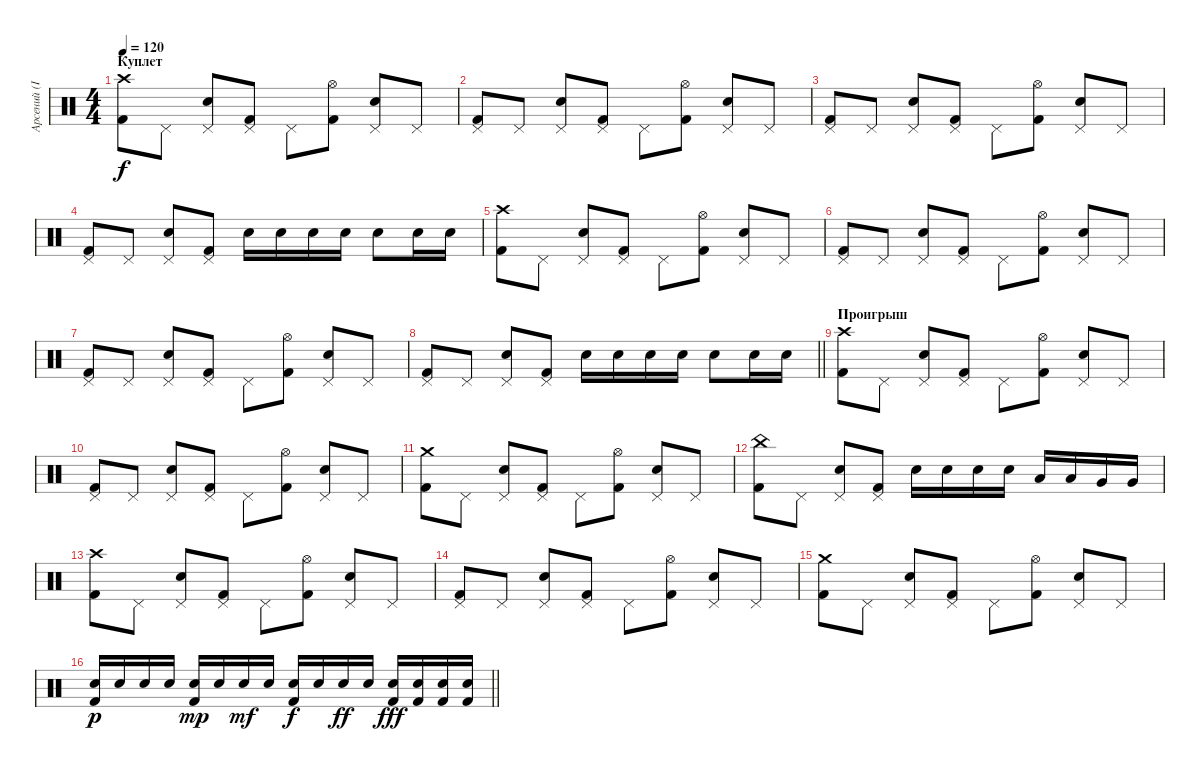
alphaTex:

\track ("Арсений (Idler) Ударные" "Арсений (I") {instrument percussion}
\staff {score}
\articulation defaults
\ts (4 4)
\section ("" "Куплет")
\tempo 120
\clef neutral
\ks c
("Crash high (hit)" "Kick (hit) 2").8{dy f} "Pedal Hi-Hat (hit)".8 ("Pedal Hi-Hat (hit)" "Snare (hit) 2").8 ("Pedal Hi-Hat (hit)" "Kick (hit) 2").8 "Pedal Hi-Hat (hit)".8 ("Hi-Hat (open)" "Kick (hit) 2").8 ("Pedal Hi-Hat (hit)" "Snare (hit) 2").8 "Pedal Hi-Hat (hit)".8 |
("Pedal Hi-Hat (hit)" "Kick (hit) 2").8 "Pedal Hi-Hat (hit)".8 ("Pedal Hi-Hat (hit)" "Snare (hit) 2").8 ("Pedal Hi-Hat (hit)" "Kick (hit) 2").8 "Pedal Hi-Hat (hit)".8 ("Hi-Hat (open)" "Kick (hit) 2").8 ("Pedal Hi-Hat (hit)" "Snare (hit) 2").8 "Pedal Hi-Hat (hit)".8 |
("Pedal Hi-Hat (hit)" "Kick (hit) 2").8 "Pedal Hi-Hat (hit)".8 ("Pedal Hi-Hat (hit)" "Snare (hit) 2").8 ("Pedal Hi-Hat (hit)" "Kick (hit) 2").8 "Pedal Hi-Hat (hit)".8 ("Hi-Hat (open)" "Kick (hit) 2").8 ("Pedal Hi-Hat (hit)" "Snare (hit) 2").8 "Pedal Hi-Hat (hit)".8 |
("Pedal Hi-Hat (hit)" "Kick (hit) 2").8 "Pedal Hi-Hat (hit)".8 ("Pedal Hi-Hat (hit)" "Snare (hit) 2").8 ("Pedal Hi-Hat (hit)" "Kick (hit) 2").8 "Snare (hit) 2".16 "Snare (hit) 2".16 "Snare (hit) 2".16 "Snare (hit) 2".16 "Snare (hit) 2".8 "Snare (hit) 2".16 "Snare (hit) 2".16 |
("Crash high (hit)" "Kick (hit) 2").8 "Pedal Hi-Hat (hit)".8 ("Pedal Hi-Hat (hit)" "Snare (hit) 2").8 ("Pedal Hi-Hat (hit)" "Kick (hit) 2").8 "Pedal Hi-Hat (hit)".8 ("Hi-Hat (open)" "Kick (hit) 2").8 ("Pedal Hi-Hat (hit)" "Snare (hit) 2").8 "Pedal Hi-Hat (hit)".8 |
("Pedal Hi-Hat (hit)" "Kick (hit) 2").8 "Pedal Hi-Hat (hit)".8 ("Pedal Hi-Hat (hit)" "Snare (hit) 2").8 ("Pedal Hi-Hat (hit)" "Kick (hit) 2").8 "Pedal Hi-Hat (hit)".8 ("Hi-Hat (open)" "Kick (hit) 2").8 ("Pedal Hi-Hat (hit)" "Snare (hit) 2").8 "Pedal Hi-Hat (hit)".8 |
("Pedal Hi-Hat (hit)" "Kick (hit) 2").8 "Pedal Hi-Hat (hit)".8 ("Pedal Hi-Hat (hit)" "Snare (hit) 2").8 ("Pedal Hi-Hat (hit)" "Kick (hit) 2").8 "Pedal Hi-Hat (hit)".8 ("Hi-Hat (open)" "Kick (hit) 2").8 ("Pedal Hi-Hat (hit)" "Snare (hit) 2").8 "Pedal Hi-Hat (hit)".8 |
\barLineRight lightlight
("Pedal Hi-Hat (hit)" "Kick (hit) 2").8 "Pedal Hi-Hat (hit)".8 ("Pedal Hi-Hat (hit)" "Snare (hit) 2").8 ("Pedal Hi-Hat (hit)" "Kick (hit) 2").8 "Snare (hit) 2".16 "Snare (hit) 2".16 "Snare (hit) 2".16 "Snare (hit) 2".16 "Snare (hit) 2".8 "Snare (hit) 2".16 "Snare (hit) 2".16 |
\section ("" "Проигрыш")
("Crash high (hit)" "Kick (hit) 2").8 "Pedal Hi-Hat (hit)".8 ("Pedal Hi-Hat (hit)" "Snare (hit) 2").8 ("Pedal Hi-Hat (hit)" "Kick (hit) 2").8 "Pedal Hi-Hat (hit)".8 ("Hi-Hat (open)" "Kick (hit) 2").8 ("Pedal Hi-Hat (hit)" "Snare (hit) 2").8 "Pedal Hi-Hat (hit)".8 |
("Pedal Hi-Hat (hit)" "Kick (hit) 2").8 "Pedal Hi-Hat (hit)".8 ("Pedal Hi-Hat (hit)" "Snare (hit) 2").8 ("Pedal Hi-Hat (hit)" "Kick (hit) 2").8 "Pedal Hi-Hat (hit)".8 ("Hi-Hat (open)" "Kick (hit) 2").8 ("Pedal Hi-Hat (hit)" "Snare (hit) 2").8 "Pedal Hi-Hat (hit)".8 |
("Crash medium (hit)" "Kick (hit) 2").8 "Pedal Hi-Hat (hit)".8 ("Pedal Hi-Hat (hit)" "Snare (hit) 2").8 ("Pedal Hi-Hat (hit)" "Kick (hit) 2").8 "Pedal Hi-Hat (hit)".8 ("Hi-Hat (open)" "Kick (hit) 2").8 ("Pedal Hi-Hat (hit)" "Snare (hit) 2").8 "Pedal Hi-Hat (hit)".8 |
("China (hit)" "Kick (hit) 2").8 "Pedal Hi-Hat (hit)".8 ("Pedal Hi-Hat (hit)" "Snare (hit) 2").8 ("Pedal Hi-Hat (hit)" "Kick (hit) 2").8 "Snare (hit) 2".16 "Snare (hit) 2".16 "Snare (hit) 2".16 "Snare (hit) 2".16 "Low Tom (hit)".16 "Low Tom (hit)".16 "Very Low Tom (hit)".16 "Very Low Tom (hit)".16 |
("Crash high (hit)" "Kick (hit) 2").8 "Pedal Hi-Hat (hit)".8 ("Pedal Hi-Hat (hit)" "Snare (hit) 2").8 ("Pedal Hi-Hat (hit)" "Kick (hit) 2").8 "Pedal Hi-Hat (hit)".8 ("Hi-Hat (open)" "Kick (hit) 2").8 ("Pedal Hi-Hat (hit)" "Snare (hit) 2").8 "Pedal Hi-Hat (hit)".8 |
("Pedal Hi-Hat (hit)" "Kick (hit) 2").8 "Pedal Hi-Hat (hit)".8 ("Pedal Hi-Hat (hit)" "Snare (hit) 2").8 ("Pedal Hi-Hat (hit)" "Kick (hit) 2").8 "Pedal Hi-Hat (hit)".8 ("Hi-Hat (open)" "Kick (hit) 2").8 ("Pedal Hi-Hat (hit)" "Snare (hit) 2").8 "Pedal Hi-Hat (hit)".8 |
("Crash medium (hit)" "Kick (hit) 2").8 "Pedal Hi-Hat (hit)".8 ("Pedal Hi-Hat (hit)" "Snare (hit) 2").8 ("Pedal Hi-Hat (hit)" "Kick (hit) 2").8 "Pedal Hi-Hat (hit)".8 ("Hi-Hat (open)" "Kick (hit) 2").8 ("Pedal Hi-Hat (hit)" "Snare (hit) 2").8 "Pedal Hi-Hat (hit)".8 |
\barLineRight lightlight
("Snare (hit) 2" "Kick (hit) 2").16{dy p} "Snare (hit) 2".16 "Snare (hit) 2".16 "Snare (hit) 2".16 ("Snare (hit) 2" "Kick (hit) 2").16{dy mp} "Snare (hit) 2".16 "Snare (hit) 2".16{dy mf} "Snare (hit) 2".16 ("Snare (hit) 2" "Kick (hit) 2").16{dy f} "Snare (hit) 2".16 "Snare (hit) 2".16{dy ff} "Snare (hit) 2".16 ("Snare (hit) 2" "Kick (hit) 2").16{dy fff} ("Snare (hit) 2" "Kick (hit) 2").16 ("Snare (hit) 2" "Kick (hit) 2").16 ("Snare (hit) 2" "Kick (hit) 2").16
